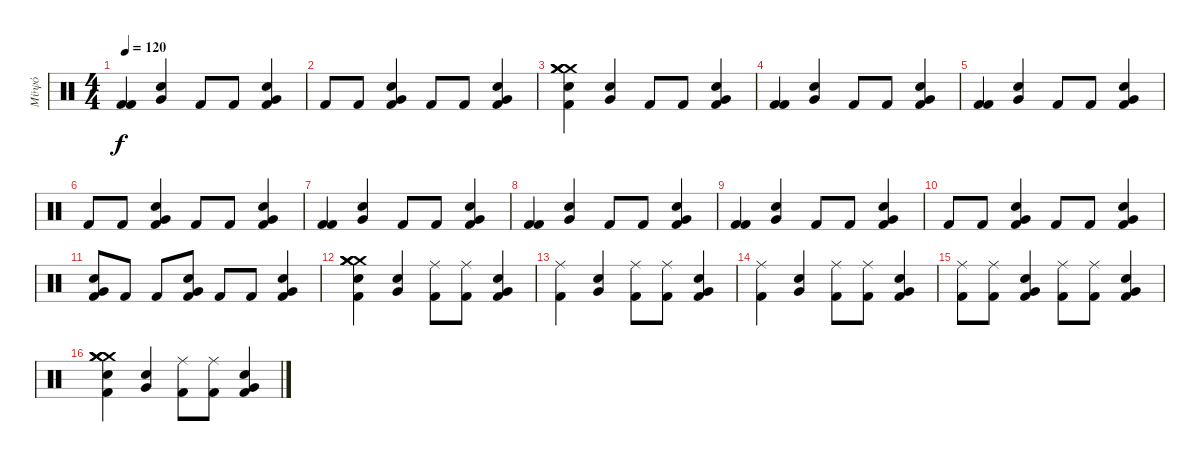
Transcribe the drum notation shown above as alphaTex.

\track ("Μϋψό" "Μϋψό") {instrument percussion}
\staff {score}
\articulation defaults
\ts (4 4)
\tempo 120
\clef neutral
\ks c
("Kick (hit) 2" "Kick (hit) 2").4{dy f} ("Electric Snare (hit)" "Very Low Tom (hit)").4 "Kick (hit) 2".8 "Kick (hit) 2".8 ("Electric Snare (hit)" "Kick (hit) 2" "Very Low Tom (hit)").4 |
"Kick (hit) 2".8 "Kick (hit) 2".8 ("Electric Snare (hit)" "Kick (hit) 2" "Very Low Tom (hit)").4 "Kick (hit) 2".8 "Kick (hit) 2".8 ("Electric Snare (hit)" "Kick (hit) 2" "Very Low Tom (hit)").4 |
("Kick (hit) 2" "Electric Snare (hit)" "Crash medium (hit)" "Crash medium (hit)" "Crash medium (hit)" "Crash medium (hit)").4 ("Electric Snare (hit)" "Very Low Tom (hit)").4 "Kick (hit) 2".8 "Kick (hit) 2".8 ("Electric Snare (hit)" "Kick (hit) 2" "Very Low Tom (hit)").4 |
("Kick (hit) 2" "Kick (hit) 2").4 ("Electric Snare (hit)" "Very Low Tom (hit)").4 "Kick (hit) 2".8 "Kick (hit) 2".8 ("Electric Snare (hit)" "Kick (hit) 2" "Very Low Tom (hit)").4 |
("Kick (hit) 2" "Kick (hit) 2").4 ("Electric Snare (hit)" "Very Low Tom (hit)").4 "Kick (hit) 2".8 "Kick (hit) 2".8 ("Electric Snare (hit)" "Kick (hit) 2" "Very Low Tom (hit)").4 |
"Kick (hit) 2".8 "Kick (hit) 2".8 ("Electric Snare (hit)" "Kick (hit) 2" "Very Low Tom (hit)").4 "Kick (hit) 2".8 "Kick (hit) 2".8 ("Electric Snare (hit)" "Kick (hit) 2" "Very Low Tom (hit)").4 |
("Kick (hit) 2" "Kick (hit) 2").4 ("Electric Snare (hit)" "Very Low Tom (hit)").4 "Kick (hit) 2".8 "Kick (hit) 2".8 ("Electric Snare (hit)" "Kick (hit) 2" "Very Low Tom (hit)").4 |
("Kick (hit) 2" "Kick (hit) 2").4 ("Electric Snare (hit)" "Very Low Tom (hit)").4 "Kick (hit) 2".8 "Kick (hit) 2".8 ("Electric Snare (hit)" "Kick (hit) 2" "Very Low Tom (hit)").4 |
("Kick (hit) 2" "Kick (hit) 2").4 ("Electric Snare (hit)" "Very Low Tom (hit)").4 "Kick (hit) 2".8 "Kick (hit) 2".8 ("Electric Snare (hit)" "Kick (hit) 2" "Very Low Tom (hit)").4 |
"Kick (hit) 2".8 "Kick (hit) 2".8 ("Electric Snare (hit)" "Kick (hit) 2" "Very Low Tom (hit)").4 "Kick (hit) 2".8 "Kick (hit) 2".8 ("Electric Snare (hit)" "Kick (hit) 2" "Very Low Tom (hit)").4 |
("Kick (hit) 2" "Electric Snare (hit)" "Very Low Tom (hit)").8 "Kick (hit) 2".8 "Kick (hit) 2".8 ("Kick (hit) 2" "Electric Snare (hit)" "Very Low Tom (hit)").8 "Kick (hit) 2".8 "Kick (hit) 2".8 ("Kick (hit) 2" "Electric Snare (hit)" "Very Low Tom (hit)").4 |
("Kick (hit) 2" "Electric Snare (hit)" "Crash medium (hit)" "Crash medium (hit)" "Crash medium (hit)" "Crash medium (hit)").4 ("Electric Snare (hit)" "Very Low Tom (hit)").4 ("Kick (hit) 2" "Ride (middle)").8 ("Kick (hit) 2" "Ride (middle)").8 ("Electric Snare (hit)" "Kick (hit) 2" "Very Low Tom (hit)").4 |
("Kick (hit) 2" "Ride (middle)").4 ("Electric Snare (hit)" "Very Low Tom (hit)").4 ("Kick (hit) 2" "Ride (middle)").8 ("Kick (hit) 2" "Ride (middle)").8 ("Electric Snare (hit)" "Kick (hit) 2" "Very Low Tom (hit)").4 |
("Kick (hit) 2" "Ride (middle)").4 ("Electric Snare (hit)" "Very Low Tom (hit)").4 ("Kick (hit) 2" "Ride (middle)").8 ("Kick (hit) 2" "Ride (middle)").8 ("Electric Snare (hit)" "Kick (hit) 2" "Very Low Tom (hit)").4 |
("Kick (hit) 2" "Ride (middle)").8 ("Kick (hit) 2" "Ride (middle)").8 ("Electric Snare (hit)" "Kick (hit) 2" "Very Low Tom (hit)").4 ("Kick (hit) 2" "Ride (middle)").8 ("Kick (hit) 2" "Ride (middle)").8 ("Electric Snare (hit)" "Kick (hit) 2" "Very Low Tom (hit)").4 |
("Kick (hit) 2" "Electric Snare (hit)" "Crash medium (hit)" "Crash medium (hit)" "Crash medium (hit)" "Crash medium (hit)").4 ("Electric Snare (hit)" "Very Low Tom (hit)").4 ("Kick (hit) 2" "Ride (middle)").8 ("Kick (hit) 2" "Ride (middle)").8 ("Electric Snare (hit)" "Kick (hit) 2" "Very Low Tom (hit)").4
